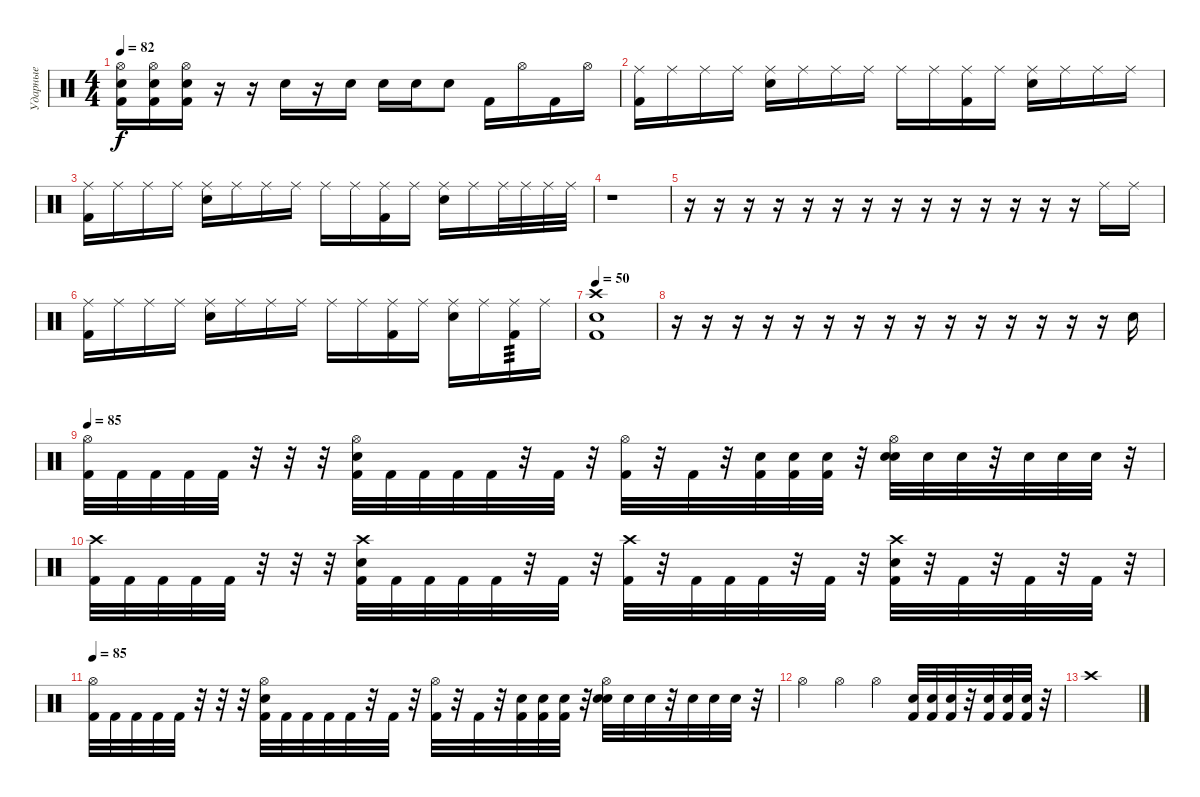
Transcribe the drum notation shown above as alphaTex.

\track ("Ударные" "Ударные") {instrument percussion}
\staff {score}
\articulation defaults
\ts (4 4)
\tempo 82
\clef neutral
\ks c
("Kick (hit) 2" "Snare (hit) 2" "Hi-Hat (open)").16{dy f} ("Kick (hit) 2" "Snare (hit) 2" "Hi-Hat (open)").16 ("Kick (hit) 2" "Snare (hit) 2" "Hi-Hat (open)").16 r.16 r.16 "Snare (hit) 2".16 r.16 "Snare (hit) 2".16 "Snare (hit) 2".16 "Snare (hit) 2".16 "Snare (hit) 2".8 "Kick (hit) 2".16 "Hi-Hat (open)".16 "Kick (hit) 2".16 "Hi-Hat (open)".16 |
("Ride (middle)" "Kick (hit) 2").16 "Ride (middle)".16 "Ride (middle)".16 "Ride (middle)".16 ("Ride (middle)" "Snare (hit) 2").16 "Ride (middle)".16 "Ride (middle)".16 "Ride (middle)".16 "Ride (middle)".16 "Ride (middle)".16 ("Ride (middle)" "Kick (hit) 2").16 "Ride (middle)".16 ("Ride (middle)" "Snare (hit) 2").16 "Ride (middle)".16 "Ride (middle)".16 "Ride (middle)".16 |
("Ride (middle)" "Kick (hit) 2").16 "Ride (middle)".16 "Ride (middle)".16 "Ride (middle)".16 ("Ride (middle)" "Snare (hit) 2").16 "Ride (middle)".16 "Ride (middle)".16 "Ride (middle)".16 "Ride (middle)".16 "Ride (middle)".16 ("Ride (middle)" "Kick (hit) 2").16 "Ride (middle)".16 ("Ride (middle)" "Snare (hit) 2").16 "Ride (middle)".16 "Ride (middle)".32 "Ride (middle)".32 "Ride (middle)".32 "Ride (middle)".32 |
r.1 |
r.16 r.16 r.16 r.16 r.16 r.16 r.16 r.16 r.16 r.16 r.16 r.16 r.16 r.16 "Ride (middle)".16 "Ride (middle)".16 |
("Ride (middle)" "Kick (hit) 2").16 "Ride (middle)".16 "Ride (middle)".16 "Ride (middle)".16 ("Ride (middle)" "Snare (hit) 2").16 "Ride (middle)".16 "Ride (middle)".16 "Ride (middle)".16 "Ride (middle)".16 "Ride (middle)".16 ("Ride (middle)" "Kick (hit) 2").16 "Ride (middle)".16 ("Ride (middle)" "Snare (hit) 2").16 "Ride (middle)".16 ("Ride (middle)" "Kick (hit) 2").16{tp 3} "Ride (middle)".16 |
\tempo 50
("Crash high (hit)" "Kick (hit) 2" "Snare (hit) 2").1 |
r.16 r.16 r.16 r.16 r.16 r.16 r.16 r.16 r.16 r.16 r.16 r.16 r.16 r.16 r.16 "Snare (hit) 2".16 |
\tempo 85
("Hi-Hat (open)" "Kick (hit) 2").32 "Kick (hit) 2".32 "Kick (hit) 2".32 "Kick (hit) 2".32 "Kick (hit) 2".32 r.32 r.32 r.32 ("Hi-Hat (open)" "Snare (hit) 2" "Kick (hit) 2").32 "Kick (hit) 2".32 "Kick (hit) 2".32 "Kick (hit) 2".32 "Kick (hit) 2".32 r.32 "Kick (hit) 2".32 r.32 ("Hi-Hat (open)" "Kick (hit) 2").32 r.32 "Kick (hit) 2".32 r.32 ("Kick (hit) 2" "Snare (hit) 2").32 ("Kick (hit) 2" "Snare (hit) 2").32 ("Kick (hit) 2" "Snare (hit) 2").32 r.32 ("Hi-Hat (open)" "Snare (hit) 2" "Snare (hit) 2").32 "Snare (hit) 2".32 "Snare (hit) 2".32 r.32 "Snare (hit) 2".32 "Snare (hit) 2".32 "Snare (hit) 2".32 r.32 |
("Crash high (hit)" "Kick (hit) 2").32 "Kick (hit) 2".32 "Kick (hit) 2".32 "Kick (hit) 2".32 "Kick (hit) 2".32 r.32 r.32 r.32 ("Crash high (hit)" "Snare (hit) 2" "Kick (hit) 2").32 "Kick (hit) 2".32 "Kick (hit) 2".32 "Kick (hit) 2".32 "Kick (hit) 2".32 r.32 "Kick (hit) 2".32 r.32 ("Crash high (hit)" "Kick (hit) 2").32 r.32 "Kick (hit) 2".32 "Kick (hit) 2".32 "Kick (hit) 2".32 r.32 "Kick (hit) 2".32 r.32 ("Crash high (hit)" "Snare (hit) 2" "Kick (hit) 2").32 r.32 "Kick (hit) 2".32 r.32 "Kick (hit) 2".32 r.32 "Kick (hit) 2".32 r.32 |
\tempo 85
("Hi-Hat (open)" "Kick (hit) 2").32 "Kick (hit) 2".32 "Kick (hit) 2".32 "Kick (hit) 2".32 "Kick (hit) 2".32 r.32 r.32 r.32 ("Hi-Hat (open)" "Snare (hit) 2" "Kick (hit) 2").32 "Kick (hit) 2".32 "Kick (hit) 2".32 "Kick (hit) 2".32 "Kick (hit) 2".32 r.32 "Kick (hit) 2".32 r.32 ("Hi-Hat (open)" "Kick (hit) 2").32 r.32 "Kick (hit) 2".32 r.32 ("Kick (hit) 2" "Snare (hit) 2").32 ("Kick (hit) 2" "Snare (hit) 2").32 ("Kick (hit) 2" "Snare (hit) 2").32 r.32 ("Hi-Hat (open)" "Snare (hit) 2" "Snare (hit) 2").32 "Snare (hit) 2".32 "Snare (hit) 2".32 r.32 "Snare (hit) 2".32 "Snare (hit) 2".32 "Snare (hit) 2".32 r.32 |
"Hi-Hat (open)".4 "Hi-Hat (open)".4 "Hi-Hat (open)".4 ("Snare (hit) 2" "Kick (hit) 2").32 ("Snare (hit) 2" "Kick (hit) 2").32 ("Snare (hit) 2" "Kick (hit) 2").32 r.32 ("Snare (hit) 2" "Kick (hit) 2").32 ("Snare (hit) 2" "Kick (hit) 2").32 ("Snare (hit) 2" "Kick (hit) 2").32 r.32 |
"Crash high (hit)".1
